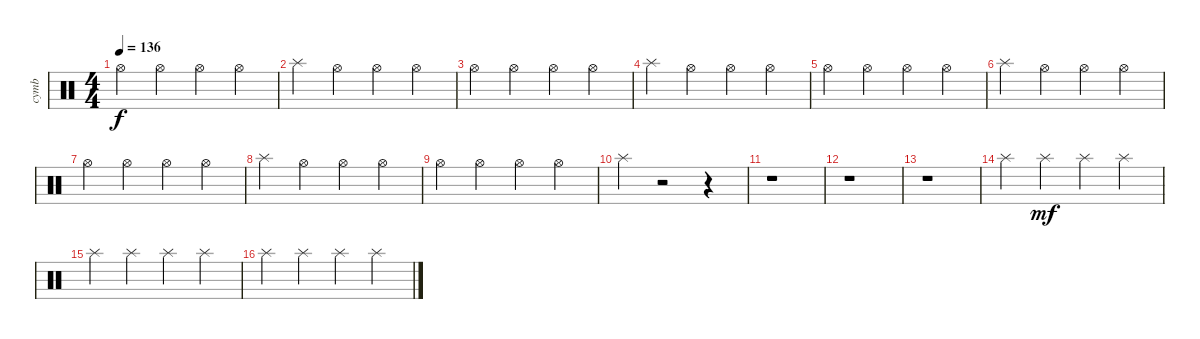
\track ("cymb" "cymb") {instrument percussion}
\staff {score}
\articulation defaults
\ts (4 4)
\tempo 136
\clef neutral
\ks c "Hi-Hat (open)".4{dy f} "Hi-Hat (open)".4 "Hi-Hat (open)".4 "Hi-Hat (open)".4
|
"Splash (hit)".4 "Hi-Hat (open)".4 "Hi-Hat (open)".4 "Hi-Hat (open)".4 |
"Hi-Hat (open)".4 "Hi-Hat (open)".4 "Hi-Hat (open)".4 "Hi-Hat (open)".4 |
"Splash (hit)".4 "Hi-Hat (open)".4 "Hi-Hat (open)".4 "Hi-Hat (open)".4 |
"Hi-Hat (open)".4 "Hi-Hat (open)".4 "Hi-Hat (open)".4 "Hi-Hat (open)".4 |
"Splash (hit)".4 "Hi-Hat (open)".4 "Hi-Hat (open)".4 "Hi-Hat (open)".4 |
"Hi-Hat (open)".4 "Hi-Hat (open)".4 "Hi-Hat (open)".4 "Hi-Hat (open)".4 |
"Splash (hit)".4 "Hi-Hat (open)".4 "Hi-Hat (open)".4 "Hi-Hat (open)".4 |
"Hi-Hat (open)".4 "Hi-Hat (open)".4 "Hi-Hat (open)".4 "Hi-Hat (open)".4 |
"Splash (hit)".4 r.2 r.4 |
r.1 |
r.1 |
r.1 |
"Splash (hit)".4 "Splash (hit)".4{dy mf} "Splash (hit)".4 "Splash (hit)".4 |
"Splash (hit)".4 "Splash (hit)".4 "Splash (hit)".4 "Splash (hit)".4 |
"Splash (hit)".4 "Splash (hit)".4 "Splash (hit)".4 "Splash (hit)".4
